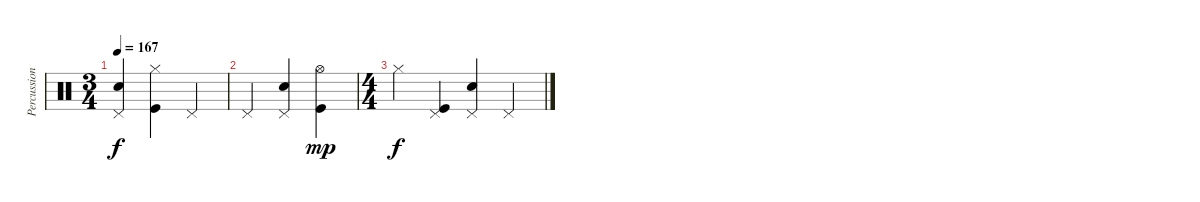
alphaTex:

\track ("Percussion" "Percussion") {instrument percussion}
\staff {score}
\articulation defaults
\ts (3 4)
\tempo 167
\clef neutral
\ks c
("Pedal Hi-Hat (hit)" "Snare (hit) 2").4{dy f} ("Hi-Hat (closed)" "Kick (hit)").4 "Pedal Hi-Hat (hit)".4 |
"Pedal Hi-Hat (hit)".4 ("Pedal Hi-Hat (hit)" "Snare (hit) 2").4 ("Hi-Hat (open)" "Kick (hit)").4{dy mp} |
\ts (4 4)
"Hi-Hat (closed)".4{dy f} ("Pedal Hi-Hat (hit)" "Kick (hit)").4 ("Pedal Hi-Hat (hit)" "Snare (hit) 2").4 "Pedal Hi-Hat (hit)".4
